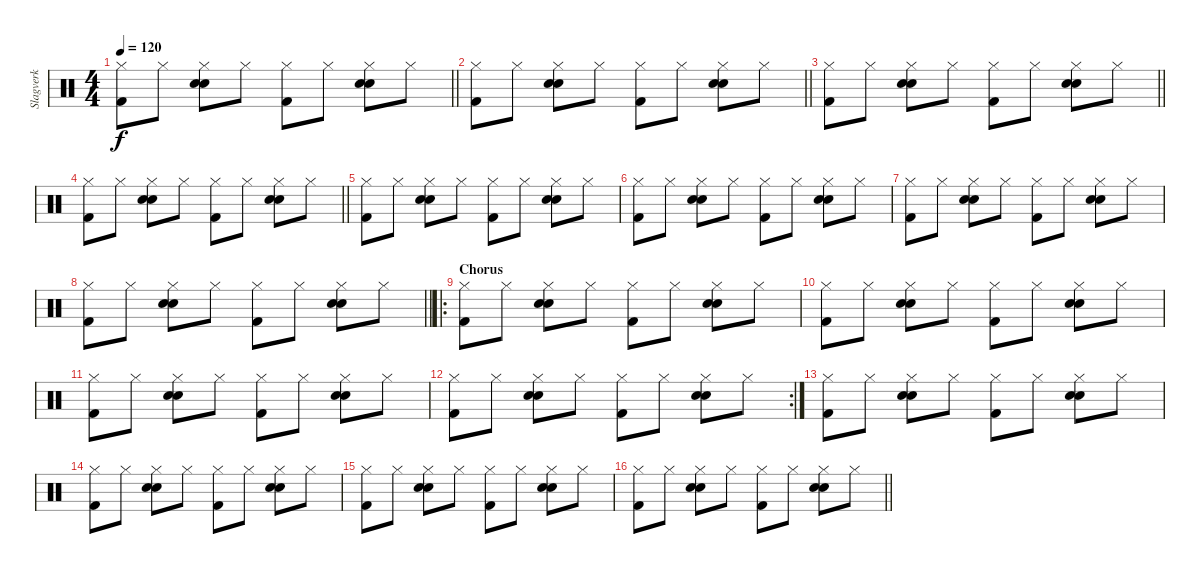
\track ("Slagverk" "Slagverk") {instrument percussion}
\staff {score}
\articulation defaults
\ts (4 4)
\tempo 120
\clef neutral
\barLineRight lightlight
\ks c
("Hi-Hat (closed)" "Kick (hit) 2").8{dy f} "Hi-Hat (closed)".8 ("Hi-Hat (closed)" "Hand Clap (hit)" "Snare (hit) 2").8 "Hi-Hat (closed)".8 ("Hi-Hat (closed)" "Kick (hit) 2").8 "Hi-Hat (closed)".8 ("Hi-Hat (closed)" "Hand Clap (hit)" "Snare (hit) 2").8 "Hi-Hat (closed)".8 |
\barLineRight lightlight
("Hi-Hat (closed)" "Kick (hit) 2").8 "Hi-Hat (closed)".8 ("Hi-Hat (closed)" "Hand Clap (hit)" "Snare (hit) 2").8 "Hi-Hat (closed)".8 ("Hi-Hat (closed)" "Kick (hit) 2").8 "Hi-Hat (closed)".8 ("Hi-Hat (closed)" "Hand Clap (hit)" "Snare (hit) 2").8 "Hi-Hat (closed)".8 |
\barLineRight lightlight
("Hi-Hat (closed)" "Kick (hit) 2").8 "Hi-Hat (closed)".8 ("Hi-Hat (closed)" "Hand Clap (hit)" "Snare (hit) 2").8 "Hi-Hat (closed)".8 ("Hi-Hat (closed)" "Kick (hit) 2").8 "Hi-Hat (closed)".8 ("Hi-Hat (closed)" "Hand Clap (hit)" "Snare (hit) 2").8 "Hi-Hat (closed)".8 |
\barLineRight lightlight
("Hi-Hat (closed)" "Kick (hit) 2").8 "Hi-Hat (closed)".8 ("Hi-Hat (closed)" "Hand Clap (hit)" "Snare (hit) 2").8 "Hi-Hat (closed)".8 ("Hi-Hat (closed)" "Kick (hit) 2").8 "Hi-Hat (closed)".8 ("Hi-Hat (closed)" "Hand Clap (hit)" "Snare (hit) 2").8 "Hi-Hat (closed)".8 |
("Hi-Hat (closed)" "Kick (hit) 2").8 "Hi-Hat (closed)".8 ("Hi-Hat (closed)" "Hand Clap (hit)" "Snare (hit) 2").8 "Hi-Hat (closed)".8 ("Hi-Hat (closed)" "Kick (hit) 2").8 "Hi-Hat (closed)".8 ("Hi-Hat (closed)" "Hand Clap (hit)" "Snare (hit) 2").8 "Hi-Hat (closed)".8 |
("Hi-Hat (closed)" "Kick (hit) 2").8 "Hi-Hat (closed)".8 ("Hi-Hat (closed)" "Hand Clap (hit)" "Snare (hit) 2").8 "Hi-Hat (closed)".8 ("Hi-Hat (closed)" "Kick (hit) 2").8 "Hi-Hat (closed)".8 ("Hi-Hat (closed)" "Hand Clap (hit)" "Snare (hit) 2").8 "Hi-Hat (closed)".8 |
("Hi-Hat (closed)" "Kick (hit) 2").8 "Hi-Hat (closed)".8 ("Hi-Hat (closed)" "Hand Clap (hit)" "Snare (hit) 2").8 "Hi-Hat (closed)".8 ("Hi-Hat (closed)" "Kick (hit) 2").8 "Hi-Hat (closed)".8 ("Hi-Hat (closed)" "Hand Clap (hit)" "Snare (hit) 2").8 "Hi-Hat (closed)".8 |
\barLineRight lightlight
("Hi-Hat (closed)" "Kick (hit) 2").8 "Hi-Hat (closed)".8 ("Hi-Hat (closed)" "Hand Clap (hit)" "Snare (hit) 2").8 "Hi-Hat (closed)".8 ("Hi-Hat (closed)" "Kick (hit) 2").8 "Hi-Hat (closed)".8 ("Hi-Hat (closed)" "Hand Clap (hit)" "Snare (hit) 2").8 "Hi-Hat (closed)".8 |
\ro
\section ("" "Chorus")
("Hi-Hat (closed)" "Kick (hit) 2").8 "Hi-Hat (closed)".8 ("Hi-Hat (closed)" "Hand Clap (hit)" "Snare (hit) 2").8 "Hi-Hat (closed)".8 ("Hi-Hat (closed)" "Kick (hit) 2").8 "Hi-Hat (closed)".8 ("Hi-Hat (closed)" "Hand Clap (hit)" "Snare (hit) 2").8 "Hi-Hat (closed)".8 |
("Hi-Hat (closed)" "Kick (hit) 2").8 "Hi-Hat (closed)".8 ("Hi-Hat (closed)" "Hand Clap (hit)" "Snare (hit) 2").8 "Hi-Hat (closed)".8 ("Hi-Hat (closed)" "Kick (hit) 2").8 "Hi-Hat (closed)".8 ("Hi-Hat (closed)" "Hand Clap (hit)" "Snare (hit) 2").8 "Hi-Hat (closed)".8 |
("Hi-Hat (closed)" "Kick (hit) 2").8 "Hi-Hat (closed)".8 ("Hi-Hat (closed)" "Hand Clap (hit)" "Snare (hit) 2").8 "Hi-Hat (closed)".8 ("Hi-Hat (closed)" "Kick (hit) 2").8 "Hi-Hat (closed)".8 ("Hi-Hat (closed)" "Hand Clap (hit)" "Snare (hit) 2").8 "Hi-Hat (closed)".8 |
\rc 2
("Hi-Hat (closed)" "Kick (hit) 2").8 "Hi-Hat (closed)".8 ("Hi-Hat (closed)" "Hand Clap (hit)" "Snare (hit) 2").8 "Hi-Hat (closed)".8 ("Hi-Hat (closed)" "Kick (hit) 2").8 "Hi-Hat (closed)".8 ("Hi-Hat (closed)" "Hand Clap (hit)" "Snare (hit) 2").8 "Hi-Hat (closed)".8 |
("Hi-Hat (closed)" "Kick (hit) 2").8 "Hi-Hat (closed)".8 ("Hi-Hat (closed)" "Hand Clap (hit)" "Snare (hit) 2").8 "Hi-Hat (closed)".8 ("Hi-Hat (closed)" "Kick (hit) 2").8 "Hi-Hat (closed)".8 ("Hi-Hat (closed)" "Hand Clap (hit)" "Snare (hit) 2").8 "Hi-Hat (closed)".8 |
("Hi-Hat (closed)" "Kick (hit) 2").8 "Hi-Hat (closed)".8 ("Hi-Hat (closed)" "Hand Clap (hit)" "Snare (hit) 2").8 "Hi-Hat (closed)".8 ("Hi-Hat (closed)" "Kick (hit) 2").8 "Hi-Hat (closed)".8 ("Hi-Hat (closed)" "Hand Clap (hit)" "Snare (hit) 2").8 "Hi-Hat (closed)".8 |
("Hi-Hat (closed)" "Kick (hit) 2").8 "Hi-Hat (closed)".8 ("Hi-Hat (closed)" "Hand Clap (hit)" "Snare (hit) 2").8 "Hi-Hat (closed)".8 ("Hi-Hat (closed)" "Kick (hit) 2").8 "Hi-Hat (closed)".8 ("Hi-Hat (closed)" "Hand Clap (hit)" "Snare (hit) 2").8 "Hi-Hat (closed)".8 |
\barLineRight lightlight
("Hi-Hat (closed)" "Kick (hit) 2").8 "Hi-Hat (closed)".8 ("Hi-Hat (closed)" "Hand Clap (hit)" "Snare (hit) 2").8 "Hi-Hat (closed)".8 ("Hi-Hat (closed)" "Kick (hit) 2").8 "Hi-Hat (closed)".8 ("Hi-Hat (closed)" "Hand Clap (hit)" "Snare (hit) 2").8 "Hi-Hat (closed)".8
